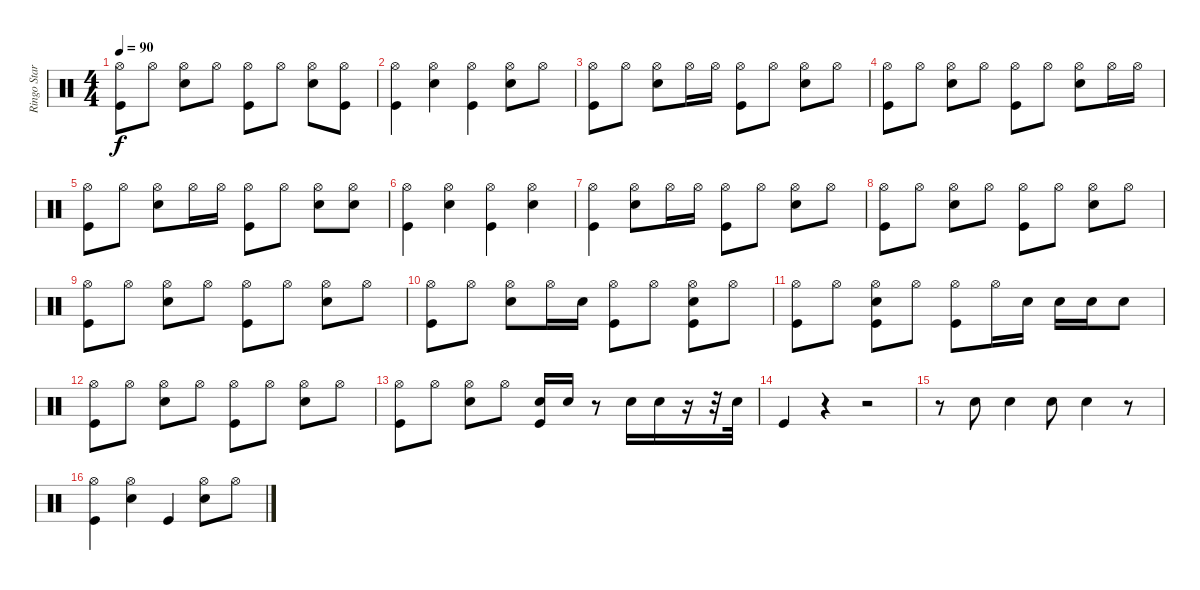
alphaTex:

\track ("Ringo Starr" "Ringo Star") {instrument percussion}
\staff {score}
\articulation defaults
\ts (4 4)
\tempo 90
\clef neutral
\ks c
("Hi-Hat (open)" "Kick (hit)").8{dy f} "Hi-Hat (open)".8 ("Hi-Hat (open)" "Snare (hit) 2").8 "Hi-Hat (open)".8 ("Hi-Hat (open)" "Kick (hit)").8 "Hi-Hat (open)".8 ("Hi-Hat (open)" "Snare (hit) 2").8 ("Hi-Hat (open)" "Kick (hit)").8 |
("Hi-Hat (open)" "Kick (hit)").4 ("Hi-Hat (open)" "Snare (hit) 2").4 ("Hi-Hat (open)" "Kick (hit)").4 ("Hi-Hat (open)" "Snare (hit) 2").8 "Hi-Hat (open)".8 |
("Hi-Hat (open)" "Kick (hit)").8 "Hi-Hat (open)".8 ("Hi-Hat (open)" "Snare (hit) 2").8 "Hi-Hat (open)".16 "Hi-Hat (open)".16 ("Hi-Hat (open)" "Kick (hit)").8 "Hi-Hat (open)".8 ("Hi-Hat (open)" "Snare (hit) 2").8 "Hi-Hat (open)".8 |
("Hi-Hat (open)" "Kick (hit)").8 "Hi-Hat (open)".8 ("Hi-Hat (open)" "Snare (hit) 2").8 "Hi-Hat (open)".8 ("Hi-Hat (open)" "Kick (hit)").8 "Hi-Hat (open)".8 ("Hi-Hat (open)" "Snare (hit) 2").8 "Hi-Hat (open)".16 "Hi-Hat (open)".16 |
("Hi-Hat (open)" "Kick (hit)").8 "Hi-Hat (open)".8 ("Hi-Hat (open)" "Snare (hit) 2").8 "Hi-Hat (open)".16 "Hi-Hat (open)".16 ("Hi-Hat (open)" "Kick (hit)").8 "Hi-Hat (open)".8 ("Hi-Hat (open)" "Snare (hit) 2").8 ("Hi-Hat (open)" "Snare (hit) 2").8 |
("Hi-Hat (open)" "Kick (hit)").4 ("Hi-Hat (open)" "Snare (hit) 2").4 ("Hi-Hat (open)" "Kick (hit)").4 ("Hi-Hat (open)" "Snare (hit) 2").4 |
("Hi-Hat (open)" "Kick (hit)").4 ("Hi-Hat (open)" "Snare (hit) 2").8 "Hi-Hat (open)".16 "Hi-Hat (open)".16 ("Hi-Hat (open)" "Kick (hit)").8 "Hi-Hat (open)".8 ("Hi-Hat (open)" "Snare (hit) 2").8 "Hi-Hat (open)".8 |
("Hi-Hat (open)" "Kick (hit)").8 "Hi-Hat (open)".8 ("Hi-Hat (open)" "Snare (hit) 2").8 "Hi-Hat (open)".8 ("Hi-Hat (open)" "Kick (hit)").8 "Hi-Hat (open)".8 ("Hi-Hat (open)" "Snare (hit) 2").8 "Hi-Hat (open)".8 |
("Hi-Hat (open)" "Kick (hit)").8 "Hi-Hat (open)".8 ("Hi-Hat (open)" "Snare (hit) 2").8 "Hi-Hat (open)".8 ("Hi-Hat (open)" "Kick (hit)").8 "Hi-Hat (open)".8 ("Hi-Hat (open)" "Snare (hit) 2").8 "Hi-Hat (open)".8 |
("Hi-Hat (open)" "Kick (hit)").8 "Hi-Hat (open)".8 ("Hi-Hat (open)" "Snare (hit) 2").8 "Hi-Hat (open)".16 "Snare (hit) 2".16 ("Hi-Hat (open)" "Kick (hit)").8 "Hi-Hat (open)".8 ("Hi-Hat (open)" "Snare (hit) 2" "Kick (hit)").8 "Hi-Hat (open)".8 |
("Hi-Hat (open)" "Kick (hit)").8 "Hi-Hat (open)".8 ("Hi-Hat (open)" "Snare (hit) 2" "Kick (hit)").8 "Hi-Hat (open)".8 ("Hi-Hat (open)" "Kick (hit)").8 "Hi-Hat (open)".16 "Snare (hit) 2".16 "Snare (hit) 2".16 "Snare (hit) 2".16 "Snare (hit) 2".8 |
("Hi-Hat (open)" "Kick (hit)").8 "Hi-Hat (open)".8 ("Hi-Hat (open)" "Snare (hit) 2").8 "Hi-Hat (open)".8 ("Hi-Hat (open)" "Kick (hit)").8 "Hi-Hat (open)".8 ("Hi-Hat (open)" "Snare (hit) 2").8 "Hi-Hat (open)".8 |
("Hi-Hat (open)" "Kick (hit)").8 "Hi-Hat (open)".8 ("Hi-Hat (open)" "Snare (hit) 2").8 "Hi-Hat (open)".8 ("Snare (hit) 2" "Kick (hit)").16 "Snare (hit) 2".16 r.8 "Snare (hit) 2".16 "Snare (hit) 2".16 r.16 r.32 "Snare (hit) 2".32 |
"Kick (hit)".4 r.4 r.2 |
r.8 "Snare (hit) 2".8 "Snare (hit) 2".4 "Snare (hit) 2".8 "Snare (hit) 2".4 r.8 |
("Hi-Hat (open)" "Kick (hit)").4 ("Hi-Hat (open)" "Snare (hit) 2").4 "Kick (hit)".4 ("Hi-Hat (open)" "Snare (hit) 2").8 "Hi-Hat (open)".8
